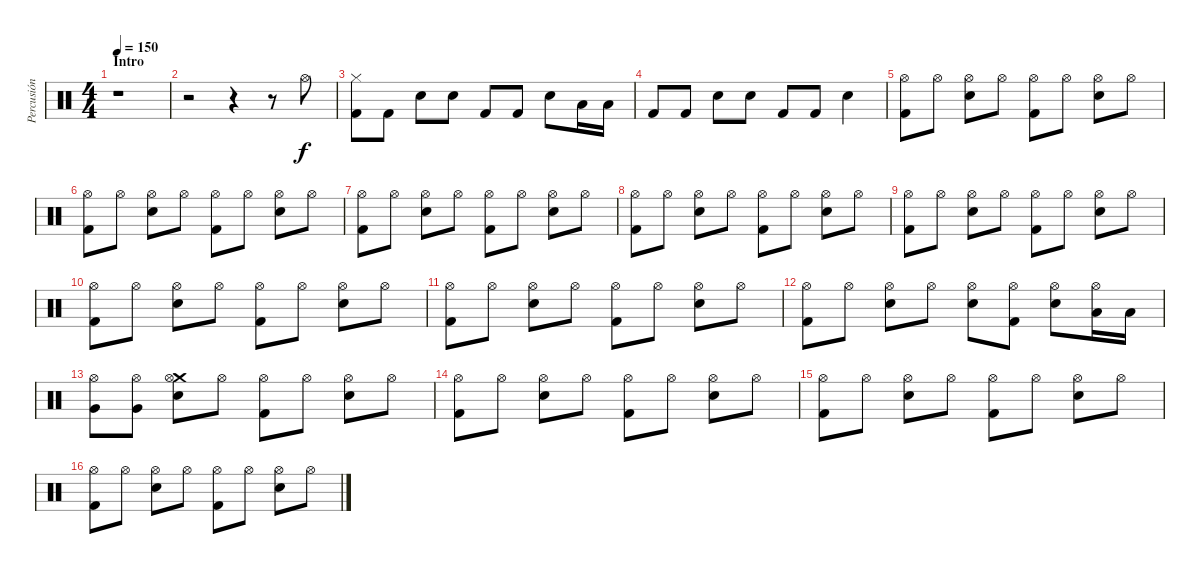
\track ("Percusión" "Percusión") {instrument percussion}
\staff {score}
\articulation defaults
\ts (4 4)
\section ("" "Intro")
\tempo 150
\clef neutral
\ks c
r.1{dy f} |
r.2 r.4 r.8 "Hi-Hat (open)".8 |
("Hi-Hat (closed)" "Kick (hit) 2").8 "Kick (hit) 2".8 "Snare (hit) 2".8 "Snare (hit) 2".8 "Kick (hit) 2".8 "Kick (hit) 2".8 "Snare (hit) 2".8 "Low Tom (hit)".16 "Low Tom (hit)".16 |
"Kick (hit) 2".8 "Kick (hit) 2".8 "Snare (hit) 2".8 "Snare (hit) 2".8 "Kick (hit) 2".8 "Kick (hit) 2".8 "Snare (hit) 2".4 |
("Kick (hit) 2" "Hi-Hat (open)").8 "Hi-Hat (open)".8 ("Snare (hit) 2" "Hi-Hat (open)").8 "Hi-Hat (open)".8 ("Kick (hit) 2" "Hi-Hat (open)").8 "Hi-Hat (open)".8 ("Snare (hit) 2" "Hi-Hat (open)").8 "Hi-Hat (open)".8 |
("Kick (hit) 2" "Hi-Hat (open)").8 "Hi-Hat (open)".8 ("Snare (hit) 2" "Hi-Hat (open)").8 "Hi-Hat (open)".8 ("Kick (hit) 2" "Hi-Hat (open)").8 "Hi-Hat (open)".8 ("Snare (hit) 2" "Hi-Hat (open)").8 "Hi-Hat (open)".8 |
("Kick (hit) 2" "Hi-Hat (open)").8 "Hi-Hat (open)".8 ("Snare (hit) 2" "Hi-Hat (open)").8 "Hi-Hat (open)".8 ("Kick (hit) 2" "Hi-Hat (open)").8 "Hi-Hat (open)".8 ("Snare (hit) 2" "Hi-Hat (open)").8 "Hi-Hat (open)".8 |
("Kick (hit) 2" "Hi-Hat (open)").8 "Hi-Hat (open)".8 ("Snare (hit) 2" "Hi-Hat (open)").8 "Hi-Hat (open)".8 ("Kick (hit) 2" "Hi-Hat (open)").8 "Hi-Hat (open)".8 ("Snare (hit) 2" "Hi-Hat (open)").8 "Hi-Hat (open)".8 |
("Kick (hit) 2" "Hi-Hat (open)").8 "Hi-Hat (open)".8 ("Snare (hit) 2" "Hi-Hat (open)").8 "Hi-Hat (open)".8 ("Kick (hit) 2" "Hi-Hat (open)").8 "Hi-Hat (open)".8 ("Snare (hit) 2" "Hi-Hat (open)").8 "Hi-Hat (open)".8 |
("Kick (hit) 2" "Hi-Hat (open)").8 "Hi-Hat (open)".8 ("Snare (hit) 2" "Hi-Hat (open)").8 "Hi-Hat (open)".8 ("Kick (hit) 2" "Hi-Hat (open)").8 "Hi-Hat (open)".8 ("Snare (hit) 2" "Hi-Hat (open)").8 "Hi-Hat (open)".8 |
("Kick (hit) 2" "Hi-Hat (open)").8 "Hi-Hat (open)".8 ("Snare (hit) 2" "Hi-Hat (open)").8 "Hi-Hat (open)".8 ("Kick (hit) 2" "Hi-Hat (open)").8 "Hi-Hat (open)".8 ("Snare (hit) 2" "Hi-Hat (open)").8 "Hi-Hat (open)".8 |
("Kick (hit) 2" "Hi-Hat (open)").8 "Hi-Hat (open)".8 ("Snare (hit) 2" "Hi-Hat (open)").8 "Hi-Hat (open)".8 ("Snare (hit) 2" "Hi-Hat (open)").8 ("Kick (hit) 2" "Hi-Hat (open)").8 ("Snare (hit) 2" "Hi-Hat (open)").8 ("Low Tom (hit)" "Hi-Hat (open)").16 "Low Tom (hit)".16 |
("Very Low Tom (hit)" "Hi-Hat (open)").8 ("Very Low Tom (hit)" "Hi-Hat (open)").8 ("Crash medium (hit)" "Snare (hit) 2" "Hi-Hat (open)").8 "Hi-Hat (open)".8 ("Kick (hit) 2" "Hi-Hat (open)").8 "Hi-Hat (open)".8 ("Snare (hit) 2" "Hi-Hat (open)").8 "Hi-Hat (open)".8 |
("Kick (hit) 2" "Hi-Hat (open)").8 "Hi-Hat (open)".8 ("Snare (hit) 2" "Hi-Hat (open)").8 "Hi-Hat (open)".8 ("Kick (hit) 2" "Hi-Hat (open)").8 "Hi-Hat (open)".8 ("Snare (hit) 2" "Hi-Hat (open)").8 "Hi-Hat (open)".8 |
("Kick (hit) 2" "Hi-Hat (open)").8 "Hi-Hat (open)".8 ("Snare (hit) 2" "Hi-Hat (open)").8 "Hi-Hat (open)".8 ("Kick (hit) 2" "Hi-Hat (open)").8 "Hi-Hat (open)".8 ("Snare (hit) 2" "Hi-Hat (open)").8 "Hi-Hat (open)".8 |
("Kick (hit) 2" "Hi-Hat (open)").8 "Hi-Hat (open)".8 ("Snare (hit) 2" "Hi-Hat (open)").8 "Hi-Hat (open)".8 ("Kick (hit) 2" "Hi-Hat (open)").8 "Hi-Hat (open)".8 ("Snare (hit) 2" "Hi-Hat (open)").8 "Hi-Hat (open)".8
